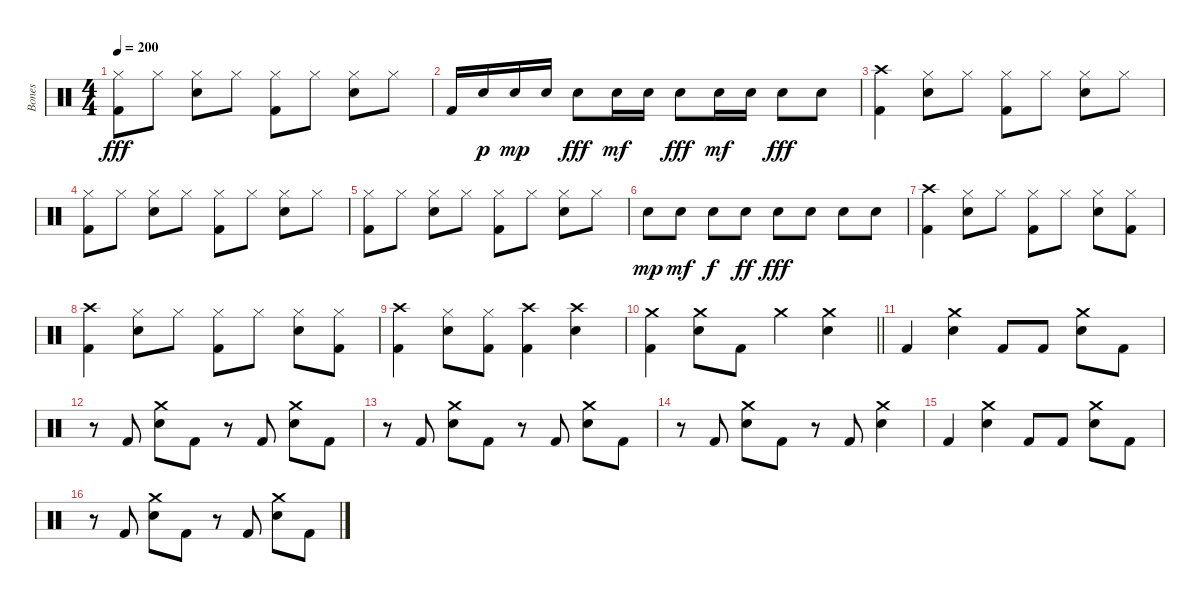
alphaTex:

\track ("Bones " "Bones ") {instrument percussion}
\staff {score}
\articulation defaults
\ts (4 4)
\tempo 200
\clef neutral
\ks c
("Hi-Hat (closed)" "Kick (hit) 2").8{dy fff} "Hi-Hat (closed)".8 ("Hi-Hat (closed)" "Snare (hit) 2").8 "Hi-Hat (closed)".8 ("Hi-Hat (closed)" "Kick (hit) 2").8 "Hi-Hat (closed)".8 ("Hi-Hat (closed)" "Snare (hit) 2").8 "Hi-Hat (closed)".8 |
"Kick (hit) 2".16 "Snare (hit) 2".16{dy p} "Snare (hit) 2".16{dy mp} "Snare (hit) 2".16 "Snare (hit) 2".8{dy fff} "Snare (hit) 2".16{dy mf} "Snare (hit) 2".16 "Snare (hit) 2".8{dy fff} "Snare (hit) 2".16{dy mf} "Snare (hit) 2".16 "Snare (hit) 2".8{dy fff} "Snare (hit) 2".8 |
("Crash high (hit)" "Kick (hit) 2").4 ("Hi-Hat (closed)" "Snare (hit) 2").8 "Hi-Hat (closed)".8 ("Hi-Hat (closed)" "Kick (hit) 2").8 "Hi-Hat (closed)".8 ("Hi-Hat (closed)" "Snare (hit) 2").8 "Hi-Hat (closed)".8 |
("Hi-Hat (closed)" "Kick (hit) 2").8 "Hi-Hat (closed)".8 ("Hi-Hat (closed)" "Snare (hit) 2").8 "Hi-Hat (closed)".8 ("Hi-Hat (closed)" "Kick (hit) 2").8 "Hi-Hat (closed)".8 ("Hi-Hat (closed)" "Snare (hit) 2").8 "Hi-Hat (closed)".8 |
("Hi-Hat (closed)" "Kick (hit) 2").8 "Hi-Hat (closed)".8 ("Hi-Hat (closed)" "Snare (hit) 2").8 "Hi-Hat (closed)".8 ("Hi-Hat (closed)" "Kick (hit) 2").8 "Hi-Hat (closed)".8 ("Hi-Hat (closed)" "Snare (hit) 2").8 "Hi-Hat (closed)".8 |
"Snare (hit) 2".8{dy mp} "Snare (hit) 2".8{dy mf} "Snare (hit) 2".8{dy f} "Snare (hit) 2".8{dy ff} "Snare (hit) 2".8{dy fff} "Snare (hit) 2".8 "Snare (hit) 2".8 "Snare (hit) 2".8 |
("Crash high (hit)" "Kick (hit) 2").4 ("Hi-Hat (closed)" "Snare (hit) 2").8 "Hi-Hat (closed)".8 ("Hi-Hat (closed)" "Kick (hit) 2").8 "Hi-Hat (closed)".8 ("Hi-Hat (closed)" "Snare (hit) 2").8 ("Hi-Hat (closed)" "Kick (hit) 2").8 |
("Crash high (hit)" "Kick (hit) 2").4 ("Hi-Hat (closed)" "Snare (hit) 2").8 "Hi-Hat (closed)".8 ("Hi-Hat (closed)" "Kick (hit) 2").8 "Hi-Hat (closed)".8 ("Hi-Hat (closed)" "Snare (hit) 2").8 ("Hi-Hat (closed)" "Kick (hit) 2").8 |
("Crash high (hit)" "Kick (hit) 2").4 ("Hi-Hat (closed)" "Snare (hit) 2").8 ("Hi-Hat (closed)" "Kick (hit) 2").8 ("Crash high (hit)" "Kick (hit) 2").4 ("Crash high (hit)" "Snare (hit) 2").4 |
\barLineRight lightlight
("Crash medium (hit)" "Kick (hit) 2").4 ("Crash medium (hit)" "Snare (hit) 2").8 "Kick (hit) 2".8 "Crash medium (hit)".4 ("Crash medium (hit)" "Snare (hit) 2").4 |
"Kick (hit) 2".4 ("Crash medium (hit)" "Snare (hit) 2").4 "Kick (hit) 2".8 "Kick (hit) 2".8 ("Crash medium (hit)" "Snare (hit) 2").8 "Kick (hit) 2".8 |
r.8 "Kick (hit) 2".8 ("Crash medium (hit)" "Snare (hit) 2").8 "Kick (hit) 2".8 r.8 "Kick (hit) 2".8 ("Crash medium (hit)" "Snare (hit) 2").8 "Kick (hit) 2".8 |
r.8 "Kick (hit) 2".8 ("Crash medium (hit)" "Snare (hit) 2").8 "Kick (hit) 2".8 r.8 "Kick (hit) 2".8 ("Crash medium (hit)" "Snare (hit) 2").8 "Kick (hit) 2".8 |
r.8 "Kick (hit) 2".8 ("Crash medium (hit)" "Snare (hit) 2").8 "Kick (hit) 2".8 r.8 "Kick (hit) 2".8 ("Crash medium (hit)" "Snare (hit) 2").4 |
"Kick (hit) 2".4 ("Crash medium (hit)" "Snare (hit) 2").4 "Kick (hit) 2".8 "Kick (hit) 2".8 ("Crash medium (hit)" "Snare (hit) 2").8 "Kick (hit) 2".8 |
r.8 "Kick (hit) 2".8 ("Crash medium (hit)" "Snare (hit) 2").8 "Kick (hit) 2".8 r.8 "Kick (hit) 2".8 ("Crash medium (hit)" "Snare (hit) 2").8 "Kick (hit) 2".8
